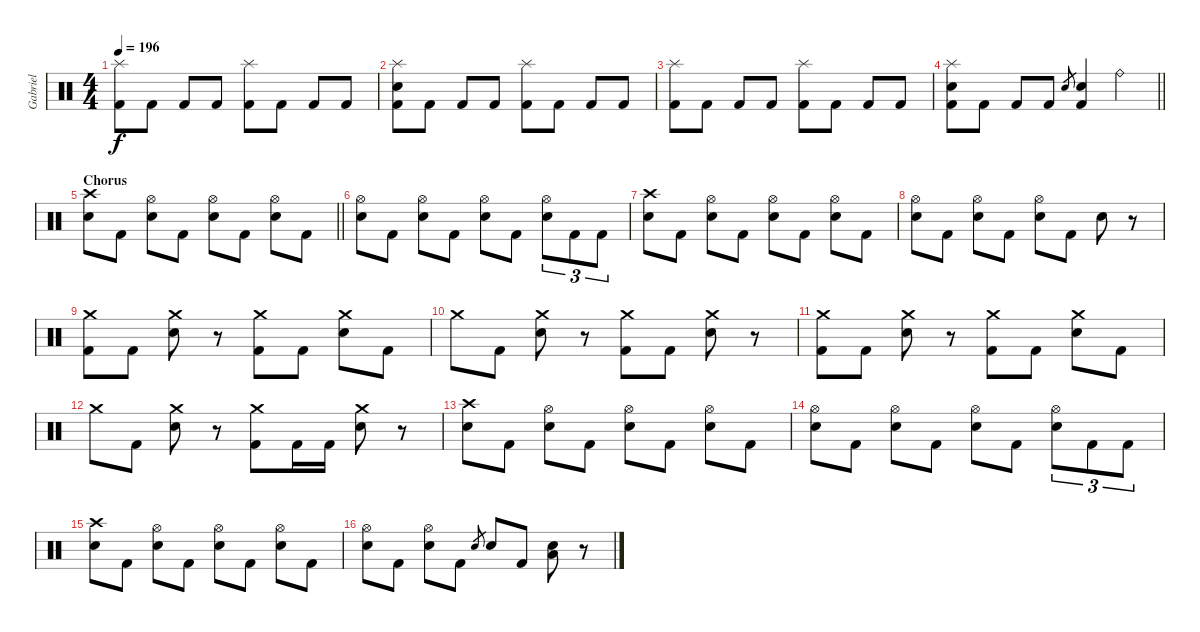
\track ("Gabriel" "Gabriel") {instrument percussion}
\staff {score}
\articulation defaults
\ts (4 4)
\tempo 196
\clef neutral
\ks c
("Splash (hit)" "Kick (hit) 2").8{dy f} "Kick (hit) 2".8 "Kick (hit) 2".8 "Kick (hit) 2".8 ("Splash (hit)" "Kick (hit) 2").8 "Kick (hit) 2".8 "Kick (hit) 2".8 "Kick (hit) 2".8 |
("Splash (hit)" "Electric Snare (hit)" "Kick (hit) 2").8 "Kick (hit) 2".8 "Kick (hit) 2".8 "Kick (hit) 2".8 ("Splash (hit)" "Kick (hit) 2").8 "Kick (hit) 2".8 "Kick (hit) 2".8 "Kick (hit) 2".8 |
("Splash (hit)" "Kick (hit) 2").8 "Kick (hit) 2".8 "Kick (hit) 2".8 "Kick (hit) 2".8 ("Splash (hit)" "Kick (hit) 2").8 "Kick (hit) 2".8 "Kick (hit) 2".8 "Kick (hit) 2".8 |
\barLineRight lightlight
("Splash (hit)" "Electric Snare (hit)" "Kick (hit) 2").8 "Kick (hit) 2".8 "Kick (hit) 2".8 "Kick (hit) 2".8 "Electric Snare (hit)".8{gr} ("Electric Snare (hit)" "Kick (hit) 2").4 "Ride (bell)".4 |
\section ("" "Chorus")
\barLineRight lightlight
("Crash high (hit)" "Electric Snare (hit)").8 "Kick (hit) 2".8 ("Hi-Hat (open)" "Electric Snare (hit)").8 "Kick (hit) 2".8 ("Hi-Hat (open)" "Electric Snare (hit)").8 "Kick (hit) 2".8 ("Hi-Hat (open)" "Electric Snare (hit)").8 "Kick (hit) 2".8 |
("Hi-Hat (open)" "Electric Snare (hit)").8 "Kick (hit) 2".8 ("Hi-Hat (open)" "Electric Snare (hit)").8 "Kick (hit) 2".8 ("Hi-Hat (open)" "Electric Snare (hit)").8 "Kick (hit) 2".8 ("Hi-Hat (open)" "Electric Snare (hit)").8{tu (3 2)} "Kick (hit) 2".8{tu (3 2)} "Kick (hit) 2".8{tu (3 2)} |
("Crash high (hit)" "Electric Snare (hit)").8 "Kick (hit) 2".8 ("Hi-Hat (open)" "Electric Snare (hit)").8 "Kick (hit) 2".8 ("Hi-Hat (open)" "Electric Snare (hit)").8 "Kick (hit) 2".8 ("Hi-Hat (open)" "Electric Snare (hit)").8 "Kick (hit) 2".8 |
("Hi-Hat (open)" "Electric Snare (hit)").8 "Kick (hit) 2".8 ("Hi-Hat (open)" "Electric Snare (hit)").8 "Kick (hit) 2".8 ("Hi-Hat (open)" "Electric Snare (hit)").8 "Kick (hit) 2".8 "Electric Snare (hit)".8 r.8 |
("Crash medium (hit)" "Kick (hit) 2").8 "Kick (hit) 2".8 ("Crash medium (hit)" "Electric Snare (hit)").8 r.8 ("Crash medium (hit)" "Kick (hit) 2").8 "Kick (hit) 2".8 ("Crash medium (hit)" "Electric Snare (hit)").8 "Kick (hit) 2".8 |
"Crash medium (hit)".8 "Kick (hit) 2".8 ("Crash medium (hit)" "Electric Snare (hit)").8 r.8 ("Crash medium (hit)" "Kick (hit) 2").8 "Kick (hit) 2".8 ("Crash medium (hit)" "Electric Snare (hit)").8 r.8 |
("Crash medium (hit)" "Kick (hit) 2").8 "Kick (hit) 2".8 ("Crash medium (hit)" "Electric Snare (hit)").8 r.8 ("Crash medium (hit)" "Kick (hit) 2").8 "Kick (hit) 2".8 ("Crash medium (hit)" "Electric Snare (hit)").8 "Kick (hit) 2".8 |
"Crash medium (hit)".8 "Kick (hit) 2".8 ("Crash medium (hit)" "Electric Snare (hit)").8 r.8 ("Crash medium (hit)" "Kick (hit) 2").8 "Kick (hit) 2".16 "Kick (hit) 2".16 ("Crash medium (hit)" "Electric Snare (hit)").8 r.8 |
("Crash high (hit)" "Electric Snare (hit)").8 "Kick (hit) 2".8 ("Hi-Hat (open)" "Electric Snare (hit)").8 "Kick (hit) 2".8 ("Hi-Hat (open)" "Electric Snare (hit)").8 "Kick (hit) 2".8 ("Hi-Hat (open)" "Electric Snare (hit)").8 "Kick (hit) 2".8 |
("Hi-Hat (open)" "Electric Snare (hit)").8 "Kick (hit) 2".8 ("Hi-Hat (open)" "Electric Snare (hit)").8 "Kick (hit) 2".8 ("Hi-Hat (open)" "Electric Snare (hit)").8 "Kick (hit) 2".8 ("Hi-Hat (open)" "Electric Snare (hit)").8{tu (3 2)} "Kick (hit) 2".8{tu (3 2)} "Kick (hit) 2".8{tu (3 2)} |
("Crash high (hit)" "Electric Snare (hit)").8 "Kick (hit) 2".8 ("Hi-Hat (open)" "Electric Snare (hit)").8 "Kick (hit) 2".8 ("Hi-Hat (open)" "Electric Snare (hit)").8 "Kick (hit) 2".8 ("Hi-Hat (open)" "Electric Snare (hit)").8 "Kick (hit) 2".8 |
("Hi-Hat (open)" "Electric Snare (hit)").8 "Kick (hit) 2".8 ("Hi-Hat (open)" "Electric Snare (hit)").8 "Kick (hit) 2".8 "Electric Snare (hit)".8{gr} "Electric Snare (hit)".8 "Kick (hit) 2".8 ("Low Tom (hit)" "Electric Snare (hit)").8 r.8
